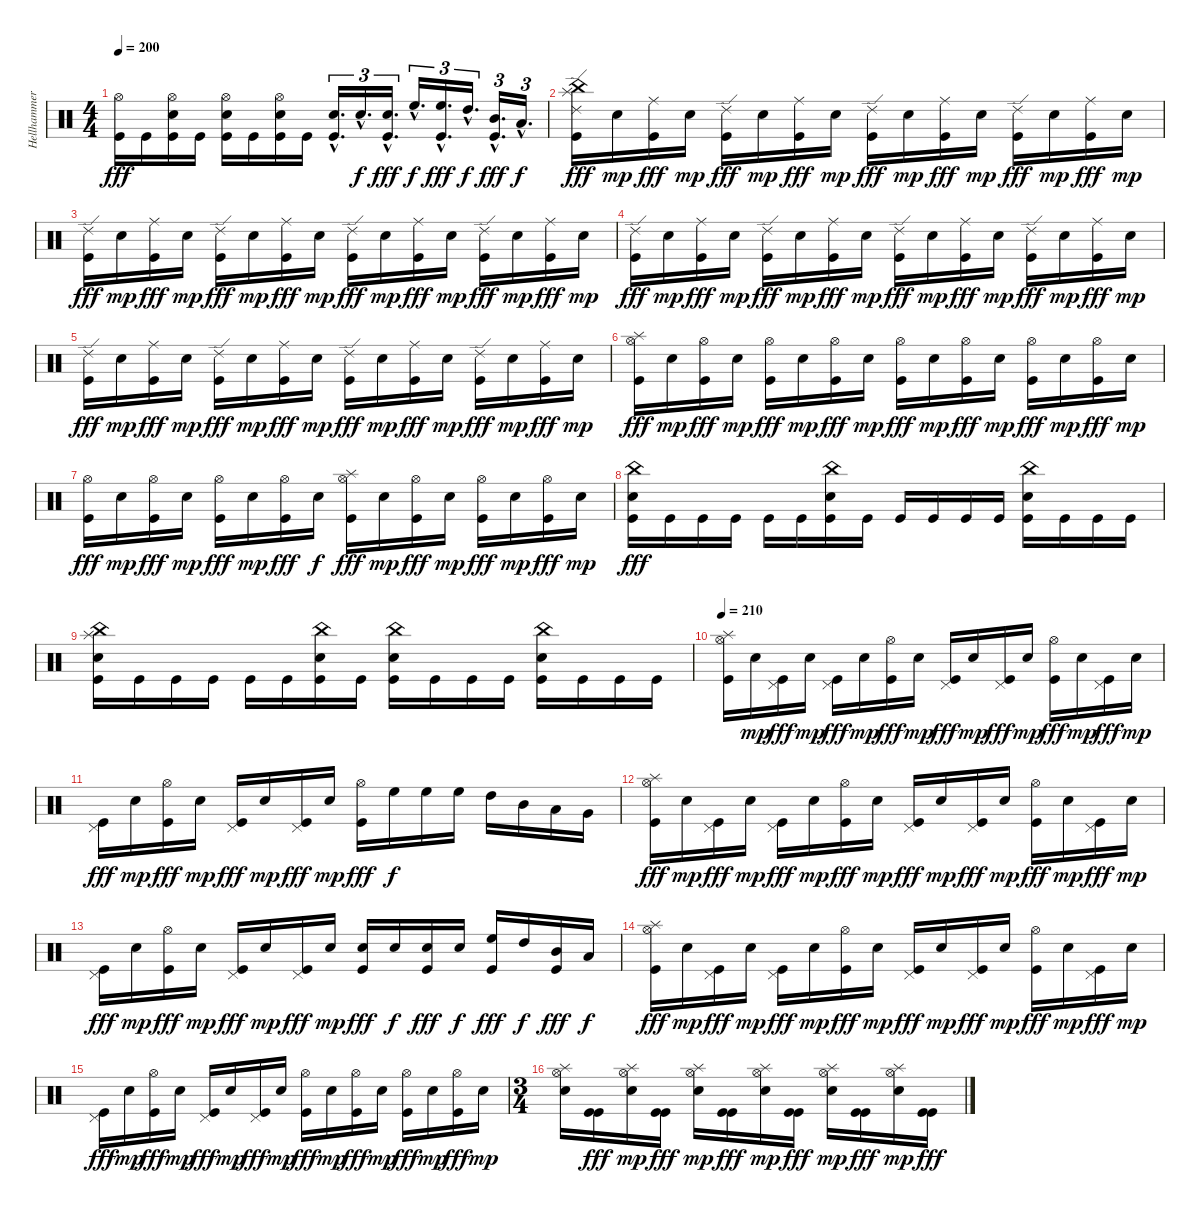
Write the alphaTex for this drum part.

\track ("Hellhammer" "Hellhammer") {instrument percussion}
\staff {score}
\articulation defaults
\ts (4 4)
\tempo 200
\clef neutral
\ks c
("Hi-Hat (open)" "Kick (hit)").16{dy fff} "Kick (hit)".16 ("Hi-Hat (open)" "Electric Snare (hit)" "Kick (hit)").16 "Kick (hit)".16 ("Hi-Hat (open)" "Electric Snare (hit)" "Kick (hit)").16 "Kick (hit)".16 ("Hi-Hat (open)" "Electric Snare (hit)" "Kick (hit)").16 "Kick (hit)".16 ("Kick (hit)"{hac} "Electric Snare (hit)"{hac}).16{d tu (3 2)} "Electric Snare (hit)"{hac}.16{d tu (3 2) dy f} ("Kick (hit)"{hac} "Electric Snare (hit)"{hac}).16{d tu (3 2) dy fff} "High Floor Tom (hit)"{hac}.16{d tu (3 2) dy f} ("Kick (hit)"{hac} "High Floor Tom (hit)"{hac}).16{d tu (3 2) dy fff} "High Tom (hit)"{hac}.16{d tu (3 2) dy f} ("Kick (hit)"{hac} "Mid Tom (hit)"{hac}).16{d tu (3 2) dy fff} "Low Tom (hit)"{hac}.16{d tu (3 2) dy f} |
("Splash (hit)" "China (hit)" "Ride (edge) 2" "Kick (hit)").16{dy fff} "Electric Snare (hit)".16{dy mp} ("Ride (middle)" "Kick (hit)").16{dy fff} "Electric Snare (hit)".16{dy mp} ("Ride (edge) 2" "Kick (hit)").16{dy fff} "Electric Snare (hit)".16{dy mp} ("Ride (middle)" "Kick (hit)").16{dy fff} "Electric Snare (hit)".16{dy mp} ("Ride (edge) 2" "Kick (hit)").16{dy fff} "Electric Snare (hit)".16{dy mp} ("Ride (middle)" "Kick (hit)").16{dy fff} "Electric Snare (hit)".16{dy mp} ("Ride (edge) 2" "Kick (hit)").16{dy fff} "Electric Snare (hit)".16{dy mp} ("Ride (middle)" "Kick (hit)").16{dy fff} "Electric Snare (hit)".16{dy mp} |
("Ride (edge) 2" "Kick (hit)").16{dy fff} "Electric Snare (hit)".16{dy mp} ("Ride (middle)" "Kick (hit)").16{dy fff} "Electric Snare (hit)".16{dy mp} ("Ride (edge) 2" "Kick (hit)").16{dy fff} "Electric Snare (hit)".16{dy mp} ("Ride (middle)" "Kick (hit)").16{dy fff} "Electric Snare (hit)".16{dy mp} ("Ride (edge) 2" "Kick (hit)").16{dy fff} "Electric Snare (hit)".16{dy mp} ("Ride (middle)" "Kick (hit)").16{dy fff} "Electric Snare (hit)".16{dy mp} ("Ride (edge) 2" "Kick (hit)").16{dy fff} "Electric Snare (hit)".16{dy mp} ("Ride (middle)" "Kick (hit)").16{dy fff} "Electric Snare (hit)".16{dy mp} |
("Ride (edge) 2" "Kick (hit)").16{dy fff} "Electric Snare (hit)".16{dy mp} ("Ride (middle)" "Kick (hit)").16{dy fff} "Electric Snare (hit)".16{dy mp} ("Ride (edge) 2" "Kick (hit)").16{dy fff} "Electric Snare (hit)".16{dy mp} ("Ride (middle)" "Kick (hit)").16{dy fff} "Electric Snare (hit)".16{dy mp} ("Ride (edge) 2" "Kick (hit)").16{dy fff} "Electric Snare (hit)".16{dy mp} ("Ride (middle)" "Kick (hit)").16{dy fff} "Electric Snare (hit)".16{dy mp} ("Ride (edge) 2" "Kick (hit)").16{dy fff} "Electric Snare (hit)".16{dy mp} ("Ride (middle)" "Kick (hit)").16{dy fff} "Electric Snare (hit)".16{dy mp} |
("Ride (edge) 2" "Kick (hit)").16{dy fff} "Electric Snare (hit)".16{dy mp} ("Ride (middle)" "Kick (hit)").16{dy fff} "Electric Snare (hit)".16{dy mp} ("Ride (edge) 2" "Kick (hit)").16{dy fff} "Electric Snare (hit)".16{dy mp} ("Ride (middle)" "Kick (hit)").16{dy fff} "Electric Snare (hit)".16{dy mp} ("Ride (edge) 2" "Kick (hit)").16{dy fff} "Electric Snare (hit)".16{dy mp} ("Ride (middle)" "Kick (hit)").16{dy fff} "Electric Snare (hit)".16{dy mp} ("Ride (edge) 2" "Kick (hit)").16{dy fff} "Electric Snare (hit)".16{dy mp} ("Ride (middle)" "Kick (hit)").16{dy fff} "Electric Snare (hit)".16{dy mp} |
("Splash (hit)" "Hi-Hat (open)" "Kick (hit)").16{dy fff} "Electric Snare (hit)".16{dy mp} ("Hi-Hat (open)" "Kick (hit)").16{dy fff} "Electric Snare (hit)".16{dy mp} ("Hi-Hat (open)" "Kick (hit)").16{dy fff} "Electric Snare (hit)".16{dy mp} ("Hi-Hat (open)" "Kick (hit)").16{dy fff} "Electric Snare (hit)".16{dy mp} ("Hi-Hat (open)" "Kick (hit)").16{dy fff} "Electric Snare (hit)".16{dy mp} ("Hi-Hat (open)" "Kick (hit)").16{dy fff} "Electric Snare (hit)".16{dy mp} ("Hi-Hat (open)" "Kick (hit)").16{dy fff} "Electric Snare (hit)".16{dy mp} ("Hi-Hat (open)" "Kick (hit)").16{dy fff} "Electric Snare (hit)".16{dy mp} |
("Hi-Hat (open)" "Kick (hit)").16{dy fff} "Electric Snare (hit)".16{dy mp} ("Hi-Hat (open)" "Kick (hit)").16{dy fff} "Electric Snare (hit)".16{dy mp} ("Hi-Hat (open)" "Kick (hit)").16{dy fff} "Electric Snare (hit)".16{dy mp} ("Hi-Hat (open)" "Kick (hit)").16{dy fff} "Electric Snare (hit)".16{dy f} ("Splash (hit)" "Hi-Hat (open)" "Kick (hit)").16{dy fff} "Electric Snare (hit)".16{dy mp} ("Hi-Hat (open)" "Kick (hit)").16{dy fff} "Electric Snare (hit)".16{dy mp} ("Hi-Hat (open)" "Kick (hit)").16{dy fff} "Electric Snare (hit)".16{dy mp} ("Hi-Hat (open)" "Kick (hit)").16{dy fff} "Electric Snare (hit)".16{dy mp} |
("China (hit)" "Electric Snare (hit)" "Kick (hit)").16{dy fff} "Kick (hit)".16 "Kick (hit)".16 "Kick (hit)".16 "Kick (hit)".16 "Kick (hit)".16 ("China (hit)" "Electric Snare (hit)" "Kick (hit)").16 "Kick (hit)".16 "Kick (hit)".16 "Kick (hit)".16 "Kick (hit)".16 "Kick (hit)".16 ("China (hit)" "Electric Snare (hit)" "Kick (hit)").16 "Kick (hit)".16 "Kick (hit)".16 "Kick (hit)".16 |
("Splash (hit)" "China (hit)" "Electric Snare (hit)" "Kick (hit)").16 "Kick (hit)".16 "Kick (hit)".16 "Kick (hit)".16 "Kick (hit)".16 "Kick (hit)".16 ("China (hit)" "Electric Snare (hit)" "Kick (hit)").16 "Kick (hit)".16 ("China (hit)" "Electric Snare (hit)" "Kick (hit)").16 "Kick (hit)".16 "Kick (hit)".16 "Kick (hit)".16 ("China (hit)" "Electric Snare (hit)" "Kick (hit)").16 "Kick (hit)".16 "Kick (hit)".16 "Kick (hit)".16 |
\tempo 210
("Splash (hit)" "Hi-Hat (open)" "Kick (hit)").16 "Electric Snare (hit)".16{dy mp} ("Pedal Hi-Hat (hit)" "Kick (hit)").16{dy fff} "Electric Snare (hit)".16{dy mp} ("Pedal Hi-Hat (hit)" "Kick (hit)").16{dy fff} "Electric Snare (hit)".16{dy mp} ("Hi-Hat (open)" "Kick (hit)").16{dy fff} "Electric Snare (hit)".16{dy mp} ("Pedal Hi-Hat (hit)" "Kick (hit)").16{dy fff} "Electric Snare (hit)".16{dy mp} ("Pedal Hi-Hat (hit)" "Kick (hit)").16{dy fff} "Electric Snare (hit)".16{dy mp} ("Hi-Hat (open)" "Kick (hit)").16{dy fff} "Electric Snare (hit)".16{dy mp} ("Pedal Hi-Hat (hit)" "Kick (hit)").16{dy fff} "Electric Snare (hit)".16{dy mp} |
("Pedal Hi-Hat (hit)" "Kick (hit)").16{dy fff} "Electric Snare (hit)".16{dy mp} ("Hi-Hat (open)" "Kick (hit)").16{dy fff} "Electric Snare (hit)".16{dy mp} ("Pedal Hi-Hat (hit)" "Kick (hit)").16{dy fff} "Electric Snare (hit)".16{dy mp} ("Pedal Hi-Hat (hit)" "Kick (hit)").16{dy fff} "Electric Snare (hit)".16{dy mp} ("Hi-Hat (open)" "Kick (hit)").16{dy fff} "High Floor Tom (hit)".16{dy f} "High Floor Tom (hit)".16 "High Floor Tom (hit)".16 "High Tom (hit)".16 "Mid Tom (hit)".16 "Low Tom (hit)".16 "Very Low Tom (hit)".16 |
("Splash (hit)" "Hi-Hat (open)" "Kick (hit)").16{dy fff} "Electric Snare (hit)".16{dy mp} ("Pedal Hi-Hat (hit)" "Kick (hit)").16{dy fff} "Electric Snare (hit)".16{dy mp} ("Pedal Hi-Hat (hit)" "Kick (hit)").16{dy fff} "Electric Snare (hit)".16{dy mp} ("Hi-Hat (open)" "Kick (hit)").16{dy fff} "Electric Snare (hit)".16{dy mp} ("Pedal Hi-Hat (hit)" "Kick (hit)").16{dy fff} "Electric Snare (hit)".16{dy mp} ("Pedal Hi-Hat (hit)" "Kick (hit)").16{dy fff} "Electric Snare (hit)".16{dy mp} ("Hi-Hat (open)" "Kick (hit)").16{dy fff} "Electric Snare (hit)".16{dy mp} ("Pedal Hi-Hat (hit)" "Kick (hit)").16{dy fff} "Electric Snare (hit)".16{dy mp} |
("Pedal Hi-Hat (hit)" "Kick (hit)").16{dy fff} "Electric Snare (hit)".16{dy mp} ("Hi-Hat (open)" "Kick (hit)").16{dy fff} "Electric Snare (hit)".16{dy mp} ("Pedal Hi-Hat (hit)" "Kick (hit)").16{dy fff} "Electric Snare (hit)".16{dy mp} ("Pedal Hi-Hat (hit)" "Kick (hit)").16{dy fff} "Electric Snare (hit)".16{dy mp} ("Kick (hit)" "Electric Snare (hit)").16{dy fff} "Electric Snare (hit)".16{dy f} ("Kick (hit)" "Electric Snare (hit)").16{dy fff} "Electric Snare (hit)".16{dy f} ("Kick (hit)" "High Floor Tom (hit)").16{dy fff} "High Tom (hit)".16{dy f} ("Kick (hit)" "Mid Tom (hit)").16{dy fff} "Low Tom (hit)".16{dy f} |
("Splash (hit)" "Hi-Hat (open)" "Kick (hit)").16{dy fff} "Electric Snare (hit)".16{dy mp} ("Pedal Hi-Hat (hit)" "Kick (hit)").16{dy fff} "Electric Snare (hit)".16{dy mp} ("Pedal Hi-Hat (hit)" "Kick (hit)").16{dy fff} "Electric Snare (hit)".16{dy mp} ("Hi-Hat (open)" "Kick (hit)").16{dy fff} "Electric Snare (hit)".16{dy mp} ("Pedal Hi-Hat (hit)" "Kick (hit)").16{dy fff} "Electric Snare (hit)".16{dy mp} ("Pedal Hi-Hat (hit)" "Kick (hit)").16{dy fff} "Electric Snare (hit)".16{dy mp} ("Hi-Hat (open)" "Kick (hit)").16{dy fff} "Electric Snare (hit)".16{dy mp} ("Pedal Hi-Hat (hit)" "Kick (hit)").16{dy fff} "Electric Snare (hit)".16{dy mp} |
("Pedal Hi-Hat (hit)" "Kick (hit)").16{dy fff} "Electric Snare (hit)".16{dy mp} ("Hi-Hat (open)" "Kick (hit)").16{dy fff} "Electric Snare (hit)".16{dy mp} ("Pedal Hi-Hat (hit)" "Kick (hit)").16{dy fff} "Electric Snare (hit)".16{dy mp} ("Pedal Hi-Hat (hit)" "Kick (hit)").16{dy fff} "Electric Snare (hit)".16{dy mp} ("Hi-Hat (open)" "Kick (hit)").16{dy fff} "Electric Snare (hit)".16{dy mp} ("Hi-Hat (open)" "Kick (hit)").16{dy fff} "Electric Snare (hit)".16{dy mp} ("Hi-Hat (open)" "Kick (hit)").16{dy fff} "Electric Snare (hit)".16{dy mp} ("Hi-Hat (open)" "Kick (hit)").16{dy fff} "Electric Snare (hit)".16{dy mp} |
\ts (3 4)
("Splash (hit)" "Hi-Hat (open)" "Electric Snare (hit)").16 ("Kick (hit)" "Kick (hit)").16{dy fff} ("Splash (hit)" "Hi-Hat (open)" "Electric Snare (hit)").16{dy mp} ("Kick (hit)" "Kick (hit)").16{dy fff} ("Splash (hit)" "Hi-Hat (open)" "Electric Snare (hit)").16{dy mp} ("Kick (hit)" "Kick (hit)").16{dy fff} ("Splash (hit)" "Hi-Hat (open)" "Electric Snare (hit)").16{dy mp} ("Kick (hit)" "Kick (hit)").16{dy fff} ("Splash (hit)" "Hi-Hat (open)" "Electric Snare (hit)").16{dy mp} ("Kick (hit)" "Kick (hit)").16{dy fff} ("Splash (hit)" "Hi-Hat (open)" "Electric Snare (hit)").16{dy mp} ("Kick (hit)" "Kick (hit)").16{dy fff}
